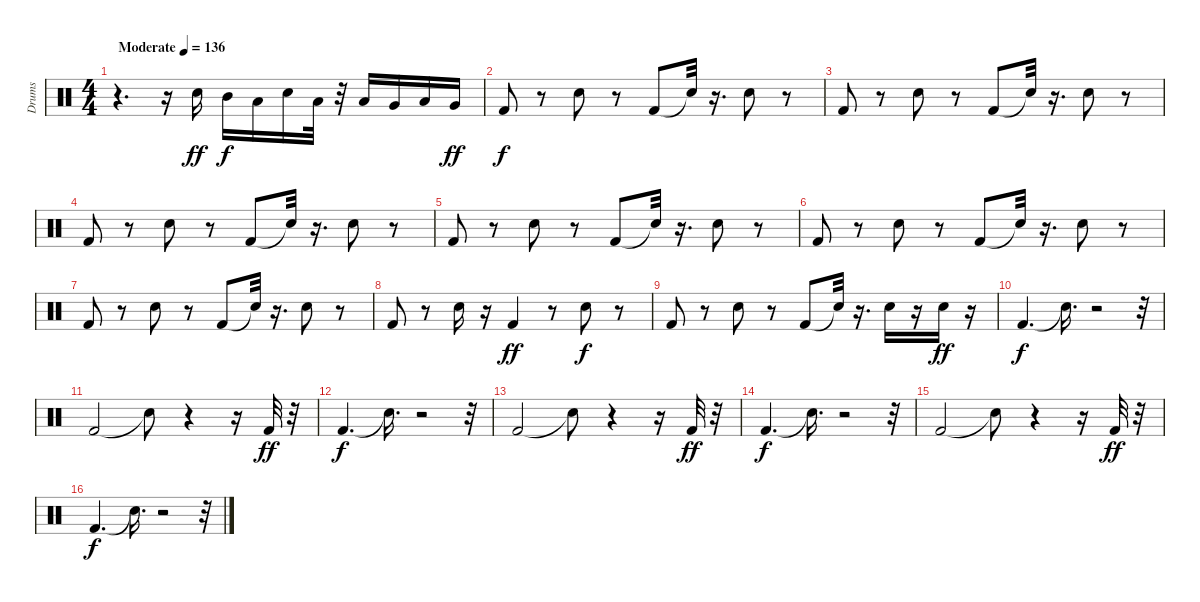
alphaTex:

\track ("Drums" "Drums") {instrument percussion}
\staff {score}
\articulation defaults
\ts (4 4)
\tempo (136 "Moderate")
\clef neutral
\ks c
r.4{d dy ff} r.16 "Electric Snare (hit)".16 "Mid Tom (hit)".16{dy f} "Low Tom (hit)".16 "Electric Snare (hit)".16 "Low Tom (hit)".32 r.32 "Low Tom (hit)".16 "Very Low Tom (hit)".16 "Low Floor Tom (hit)".16 "Very Low Tom (hit)".16{dy ff} |
"Kick (hit) 2".8{dy f} r.8 "Electric Snare (hit)".8 r.8 "Kick (hit) 2".8 "Snare (hit)"{t}.32 r.16{d} "Electric Snare (hit)".8 r.8 |
"Kick (hit) 2".8 r.8 "Electric Snare (hit)".8 r.8 "Kick (hit) 2".8 "Snare (hit)"{t}.32 r.16{d} "Electric Snare (hit)".8 r.8 |
"Kick (hit) 2".8 r.8 "Electric Snare (hit)".8 r.8 "Kick (hit) 2".8 "Snare (hit)"{t}.32 r.16{d} "Electric Snare (hit)".8 r.8 |
"Kick (hit) 2".8 r.8 "Electric Snare (hit)".8 r.8 "Kick (hit) 2".8 "Snare (hit)"{t}.32 r.16{d} "Electric Snare (hit)".8 r.8 |
"Kick (hit) 2".8 r.8 "Electric Snare (hit)".8 r.8 "Kick (hit) 2".8 "Snare (hit)"{t}.32 r.16{d} "Electric Snare (hit)".8 r.8 |
"Kick (hit) 2".8 r.8 "Electric Snare (hit)".8 r.8 "Kick (hit) 2".8 "Snare (hit)"{t}.32 r.16{d} "Electric Snare (hit)".8 r.8 |
"Kick (hit) 2".8 r.8 "Electric Snare (hit)".16 r.16 "Kick (hit) 2".4{dy ff} r.8 "Electric Snare (hit)".8{dy f} r.8 |
"Kick (hit) 2".8 r.8 "Electric Snare (hit)".8 r.8 "Kick (hit) 2".8 "Snare (hit)"{t}.32 r.16{d} "Electric Snare (hit)".16 r.16 "Electric Snare (hit)".16{dy ff} r.16 |
"Kick (hit) 2".4{d dy f} "Snare (hit)"{t}.16{d} r.2 r.32 |
"Kick (hit) 2".2 "Snare (hit)"{t}.8 r.4 r.16 "Kick (hit) 2".32{dy ff} r.32 |
"Kick (hit) 2".4{d dy f} "Snare (hit)"{t}.16{d} r.2 r.32 |
"Kick (hit) 2".2 "Snare (hit)"{t}.8 r.4 r.16 "Kick (hit) 2".32{dy ff} r.32 |
"Kick (hit) 2".4{d dy f} "Snare (hit)"{t}.16{d} r.2 r.32 |
"Kick (hit) 2".2 "Snare (hit)"{t}.8 r.4 r.16 "Kick (hit) 2".32{dy ff} r.32 |
"Kick (hit) 2".4{d dy f} "Snare (hit)"{t}.16{d} r.2 r.32
